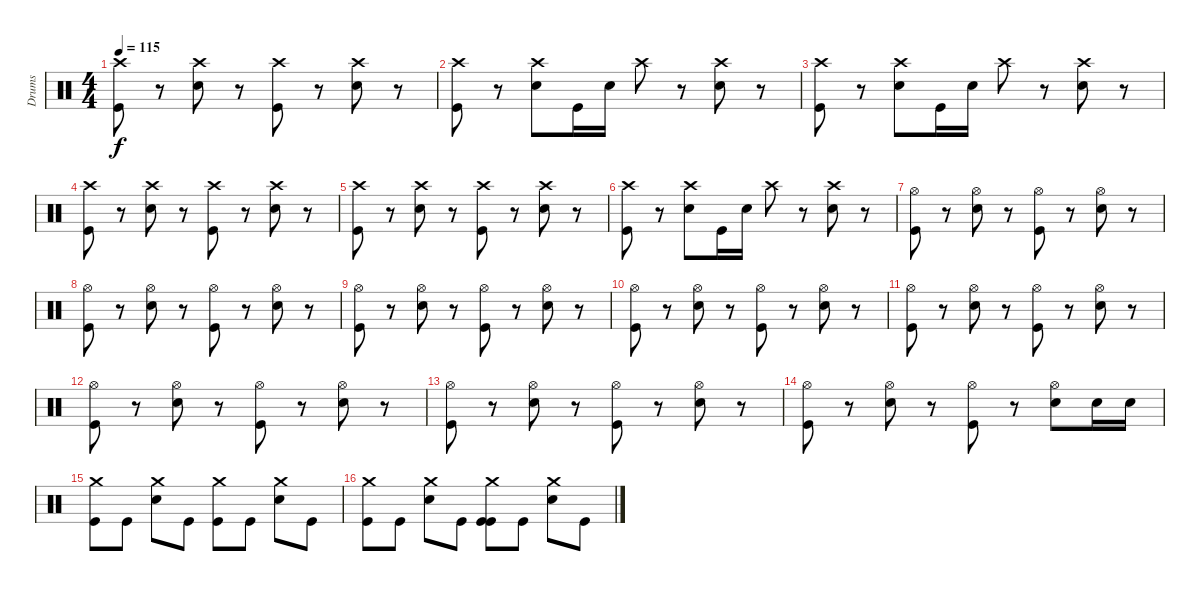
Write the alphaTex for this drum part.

\track ("Drums" "Drums") {instrument percussion}
\staff {score}
\articulation defaults
\ts (4 4)
\tempo 115
\clef neutral
\ks c
("Crash high (hit)" "Kick (hit)").8{dy f} r.8 ("Crash high (hit)" "Electric Snare (hit)").8 r.8 ("Crash high (hit)" "Kick (hit)").8 r.8 ("Crash high (hit)" "Electric Snare (hit)").8 r.8 |
("Crash high (hit)" "Kick (hit)").8 r.8 ("Crash high (hit)" "Electric Snare (hit)").8 "Kick (hit)".16 "Electric Snare (hit)".16 "Crash high (hit)".8 r.8 ("Crash high (hit)" "Electric Snare (hit)").8 r.8 |
("Crash high (hit)" "Kick (hit)").8 r.8 ("Crash high (hit)" "Electric Snare (hit)").8 "Kick (hit)".16 "Electric Snare (hit)".16 "Crash high (hit)".8 r.8 ("Crash high (hit)" "Electric Snare (hit)").8 r.8 |
("Crash high (hit)" "Kick (hit)").8 r.8 ("Crash high (hit)" "Electric Snare (hit)").8 r.8 ("Crash high (hit)" "Kick (hit)").8 r.8 ("Crash high (hit)" "Electric Snare (hit)").8 r.8 |
("Crash high (hit)" "Kick (hit)").8 r.8 ("Crash high (hit)" "Electric Snare (hit)").8 r.8 ("Crash high (hit)" "Kick (hit)").8 r.8 ("Crash high (hit)" "Electric Snare (hit)").8 r.8 |
("Crash high (hit)" "Kick (hit)").8 r.8 ("Crash high (hit)" "Electric Snare (hit)").8 "Kick (hit)".16 "Electric Snare (hit)".16 "Crash high (hit)".8 r.8 ("Crash high (hit)" "Electric Snare (hit)").8 r.8 |
("Hi-Hat (open)" "Kick (hit)").8 r.8 ("Hi-Hat (open)" "Electric Snare (hit)").8 r.8 ("Hi-Hat (open)" "Kick (hit)").8 r.8 ("Hi-Hat (open)" "Electric Snare (hit)").8 r.8 |
("Hi-Hat (open)" "Kick (hit)").8 r.8 ("Hi-Hat (open)" "Electric Snare (hit)").8 r.8 ("Hi-Hat (open)" "Kick (hit)").8 r.8 ("Hi-Hat (open)" "Electric Snare (hit)").8 r.8 |
("Hi-Hat (open)" "Kick (hit)").8 r.8 ("Hi-Hat (open)" "Electric Snare (hit)").8 r.8 ("Hi-Hat (open)" "Kick (hit)").8 r.8 ("Hi-Hat (open)" "Electric Snare (hit)").8 r.8 |
("Hi-Hat (open)" "Kick (hit)").8 r.8 ("Hi-Hat (open)" "Electric Snare (hit)").8 r.8 ("Hi-Hat (open)" "Kick (hit)").8 r.8 ("Hi-Hat (open)" "Electric Snare (hit)").8 r.8 |
("Hi-Hat (open)" "Kick (hit)").8 r.8 ("Hi-Hat (open)" "Electric Snare (hit)").8 r.8 ("Hi-Hat (open)" "Kick (hit)").8 r.8 ("Hi-Hat (open)" "Electric Snare (hit)").8 r.8 |
("Hi-Hat (open)" "Kick (hit)").8 r.8 ("Hi-Hat (open)" "Electric Snare (hit)").8 r.8 ("Hi-Hat (open)" "Kick (hit)").8 r.8 ("Hi-Hat (open)" "Electric Snare (hit)").8 r.8 |
("Hi-Hat (open)" "Kick (hit)").8 r.8 ("Hi-Hat (open)" "Electric Snare (hit)").8 r.8 ("Hi-Hat (open)" "Kick (hit)").8 r.8 ("Hi-Hat (open)" "Electric Snare (hit)").8 r.8 |
("Hi-Hat (open)" "Kick (hit)").8 r.8 ("Hi-Hat (open)" "Electric Snare (hit)").8 r.8 ("Hi-Hat (open)" "Kick (hit)").8 r.8 ("Hi-Hat (open)" "Electric Snare (hit)").8 "Electric Snare (hit)".16 "Electric Snare (hit)".16 |
("Crash medium (hit)" "Kick (hit)").8 "Kick (hit)".8 ("Crash medium (hit)" "Electric Snare (hit)").8 "Kick (hit)".8 ("Crash medium (hit)" "Kick (hit)").8 "Kick (hit)".8 ("Crash medium (hit)" "Electric Snare (hit)").8 "Kick (hit)".8 |
("Crash medium (hit)" "Kick (hit)").8 "Kick (hit)".8 ("Crash medium (hit)" "Electric Snare (hit)").8 "Kick (hit)".8 ("Crash medium (hit)" "Kick (hit)" "Kick (hit)").8 "Kick (hit)".8 ("Crash medium (hit)" "Electric Snare (hit)").8 "Kick (hit)".8
